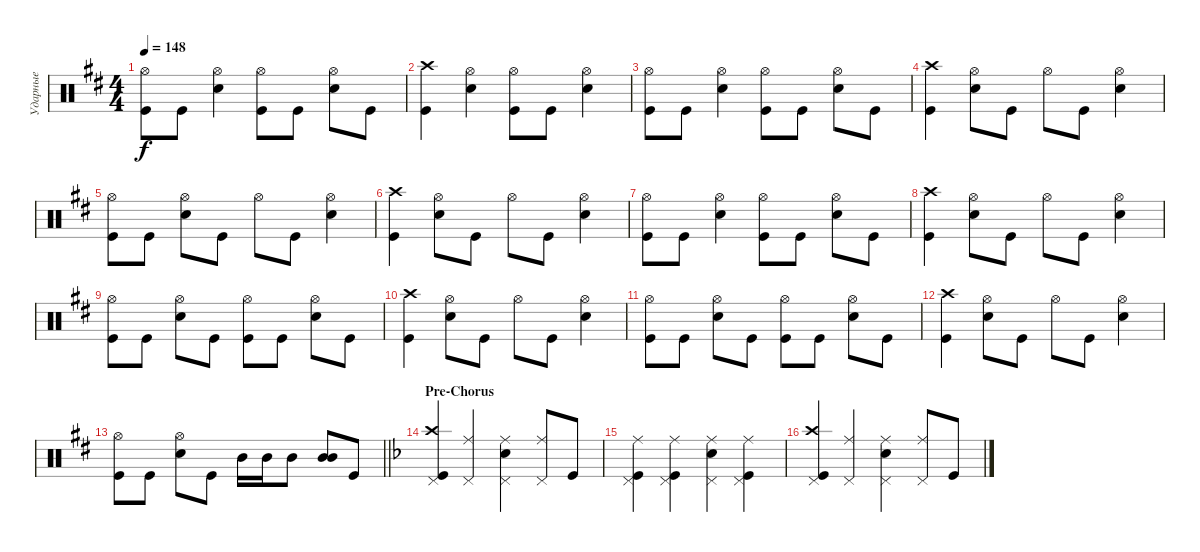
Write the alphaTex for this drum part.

\track ("Ударные" "Ударные") {instrument percussion}
\staff {score}
\articulation defaults
\ts (4 4)
\tempo 148
\clef neutral
\ks bminor
("Kick (hit)" "Hi-Hat (open)").8{dy f} "Kick (hit)".8 ("Snare (hit) 2" "Hi-Hat (open)").4 ("Kick (hit)" "Hi-Hat (open)").8 "Kick (hit)".8 ("Snare (hit) 2" "Hi-Hat (open)").8 "Kick (hit)".8 |
("Kick (hit)" "Crash high (hit)").4 ("Snare (hit) 2" "Hi-Hat (open)").4 ("Kick (hit)" "Hi-Hat (open)").8 "Kick (hit)".8 ("Snare (hit) 2" "Hi-Hat (open)").4 |
("Kick (hit)" "Hi-Hat (open)").8 "Kick (hit)".8 ("Snare (hit) 2" "Hi-Hat (open)").4 ("Kick (hit)" "Hi-Hat (open)").8 "Kick (hit)".8 ("Snare (hit) 2" "Hi-Hat (open)").8 "Kick (hit)".8 |
("Kick (hit)" "Crash high (hit)").4 ("Snare (hit) 2" "Hi-Hat (open)").8 "Kick (hit)".8 "Hi-Hat (open)".8 "Kick (hit)".8 ("Snare (hit) 2" "Hi-Hat (open)").4 |
("Kick (hit)" "Hi-Hat (open)").8 "Kick (hit)".8 ("Snare (hit) 2" "Hi-Hat (open)").8 "Kick (hit)".8 "Hi-Hat (open)".8 "Kick (hit)".8 ("Snare (hit) 2" "Hi-Hat (open)").4 |
("Kick (hit)" "Crash high (hit)").4 ("Snare (hit) 2" "Hi-Hat (open)").8 "Kick (hit)".8 "Hi-Hat (open)".8 "Kick (hit)".8 ("Snare (hit) 2" "Hi-Hat (open)").4 |
("Kick (hit)" "Hi-Hat (open)").8 "Kick (hit)".8 ("Snare (hit) 2" "Hi-Hat (open)").4 ("Kick (hit)" "Hi-Hat (open)").8 "Kick (hit)".8 ("Snare (hit) 2" "Hi-Hat (open)").8 "Kick (hit)".8 |
("Kick (hit)" "Crash high (hit)").4 ("Snare (hit) 2" "Hi-Hat (open)").8 "Kick (hit)".8 "Hi-Hat (open)".8 "Kick (hit)".8 ("Snare (hit) 2" "Hi-Hat (open)").4 |
("Kick (hit)" "Hi-Hat (open)").8 "Kick (hit)".8 ("Snare (hit) 2" "Hi-Hat (open)").8 "Kick (hit)".8 ("Kick (hit)" "Hi-Hat (open)").8 "Kick (hit)".8 ("Snare (hit) 2" "Hi-Hat (open)").8 "Kick (hit)".8 |
("Kick (hit)" "Crash high (hit)").4 ("Snare (hit) 2" "Hi-Hat (open)").8 "Kick (hit)".8 "Hi-Hat (open)".8 "Kick (hit)".8 ("Snare (hit) 2" "Hi-Hat (open)").4 |
("Kick (hit)" "Hi-Hat (open)").8 "Kick (hit)".8 ("Snare (hit) 2" "Hi-Hat (open)").8 "Kick (hit)".8 ("Kick (hit)" "Hi-Hat (open)").8 "Kick (hit)".8 ("Snare (hit) 2" "Hi-Hat (open)").8 "Kick (hit)".8 |
("Kick (hit)" "Crash high (hit)").4 ("Snare (hit) 2" "Hi-Hat (open)").8 "Kick (hit)".8 "Hi-Hat (open)".8 "Kick (hit)".8 ("Snare (hit) 2" "Hi-Hat (open)").4 |
\barLineRight lightlight
("Kick (hit)" "Hi-Hat (open)").8 "Kick (hit)".8 ("Snare (hit) 2" "Hi-Hat (open)").8 "Kick (hit)".8 "Mid Tom (hit)".16 "Mid Tom (hit)".16 "Mid Tom (hit)".8 ("Mid Tom (hit)" "Mid Tom (hit)").8{bd 240} "Kick (hit)".8 |
\section ("" "Pre-Chorus")
\ks dminor
("Kick (hit)" "Crash high (hit)" "Pedal Hi-Hat (hit)").4 ("Pedal Hi-Hat (hit)" "Ride (middle)").4 ("Pedal Hi-Hat (hit)" "Snare (hit) 2" "Ride (middle)").4 ("Pedal Hi-Hat (hit)" "Ride (middle)").8 "Kick (hit)".8 |
("Kick (hit)" "Pedal Hi-Hat (hit)" "Ride (middle)").4 ("Kick (hit)" "Pedal Hi-Hat (hit)" "Ride (middle)").4 ("Snare (hit) 2" "Pedal Hi-Hat (hit)" "Ride (middle)").4 ("Kick (hit)" "Pedal Hi-Hat (hit)" "Ride (middle)").4 |
("Kick (hit)" "Crash high (hit)" "Pedal Hi-Hat (hit)").4 ("Pedal Hi-Hat (hit)" "Ride (middle)").4 ("Pedal Hi-Hat (hit)" "Snare (hit) 2" "Ride (middle)").4 ("Pedal Hi-Hat (hit)" "Ride (middle)").8 "Kick (hit)".8
